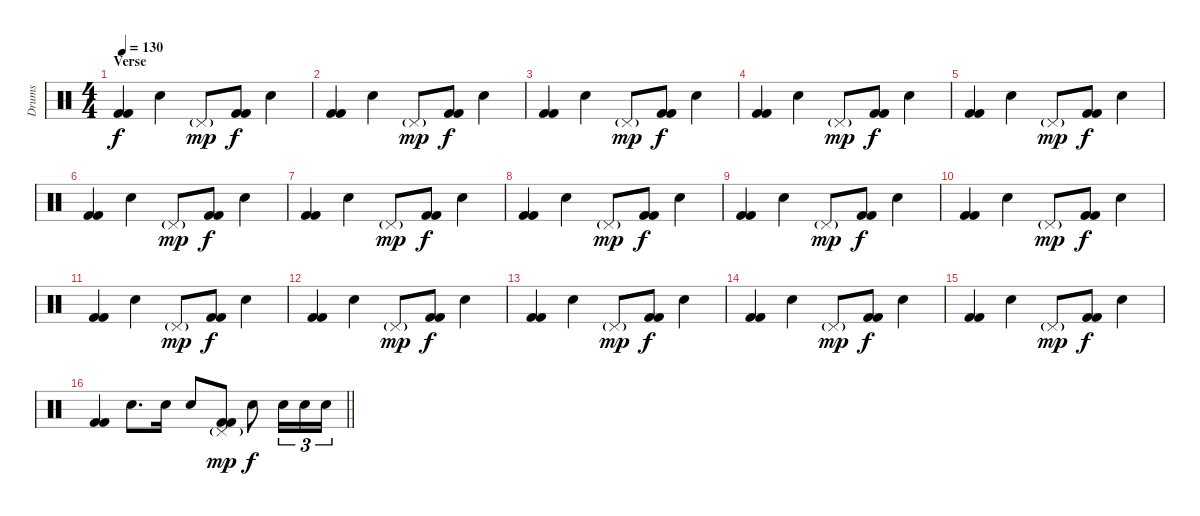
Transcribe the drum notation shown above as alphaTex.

\track ("Drums" "Drums") {instrument percussion}
\staff {score}
\articulation defaults
\ts (4 4)
\section ("" "Verse")
\tempo 130
\clef neutral
\ks c
("Kick (hit) 2" "Kick (hit) 2").4{dy f} "Electric Snare (hit)".4 "Pedal Hi-Hat (hit)"{g}.8{dy mp} ("Kick (hit) 2" "Kick (hit) 2").8{dy f} "Electric Snare (hit)".4 |
("Kick (hit) 2" "Kick (hit) 2").4 "Electric Snare (hit)".4 "Pedal Hi-Hat (hit)"{g}.8{dy mp} ("Kick (hit) 2" "Kick (hit) 2").8{dy f} "Electric Snare (hit)".4 |
("Kick (hit) 2" "Kick (hit) 2").4 "Electric Snare (hit)".4 "Pedal Hi-Hat (hit)"{g}.8{dy mp} ("Kick (hit) 2" "Kick (hit) 2").8{dy f} "Electric Snare (hit)".4 |
("Kick (hit) 2" "Kick (hit) 2").4 "Electric Snare (hit)".4 "Pedal Hi-Hat (hit)"{g}.8{dy mp} ("Kick (hit) 2" "Kick (hit) 2").8{dy f} "Electric Snare (hit)".4 |
("Kick (hit) 2" "Kick (hit) 2").4 "Electric Snare (hit)".4 "Pedal Hi-Hat (hit)"{g}.8{dy mp} ("Kick (hit) 2" "Kick (hit) 2").8{dy f} "Electric Snare (hit)".4 |
("Kick (hit) 2" "Kick (hit) 2").4 "Electric Snare (hit)".4 "Pedal Hi-Hat (hit)"{g}.8{dy mp} ("Kick (hit) 2" "Kick (hit) 2").8{dy f} "Electric Snare (hit)".4 |
("Kick (hit) 2" "Kick (hit) 2").4 "Electric Snare (hit)".4 "Pedal Hi-Hat (hit)"{g}.8{dy mp} ("Kick (hit) 2" "Kick (hit) 2").8{dy f} "Electric Snare (hit)".4 |
("Kick (hit) 2" "Kick (hit) 2").4 "Electric Snare (hit)".4 "Pedal Hi-Hat (hit)"{g}.8{dy mp} ("Kick (hit) 2" "Kick (hit) 2").8{dy f} "Electric Snare (hit)".4 |
("Kick (hit) 2" "Kick (hit) 2").4 "Electric Snare (hit)".4 "Pedal Hi-Hat (hit)"{g}.8{dy mp} ("Kick (hit) 2" "Kick (hit) 2").8{dy f} "Electric Snare (hit)".4 |
("Kick (hit) 2" "Kick (hit) 2").4 "Electric Snare (hit)".4 "Pedal Hi-Hat (hit)"{g}.8{dy mp} ("Kick (hit) 2" "Kick (hit) 2").8{dy f} "Electric Snare (hit)".4 |
("Kick (hit) 2" "Kick (hit) 2").4 "Electric Snare (hit)".4 "Pedal Hi-Hat (hit)"{g}.8{dy mp} ("Kick (hit) 2" "Kick (hit) 2").8{dy f} "Electric Snare (hit)".4 |
("Kick (hit) 2" "Kick (hit) 2").4 "Electric Snare (hit)".4 "Pedal Hi-Hat (hit)"{g}.8{dy mp} ("Kick (hit) 2" "Kick (hit) 2").8{dy f} "Electric Snare (hit)".4 |
("Kick (hit) 2" "Kick (hit) 2").4 "Electric Snare (hit)".4 "Pedal Hi-Hat (hit)"{g}.8{dy mp} ("Kick (hit) 2" "Kick (hit) 2").8{dy f} "Electric Snare (hit)".4 |
("Kick (hit) 2" "Kick (hit) 2").4 "Electric Snare (hit)".4 "Pedal Hi-Hat (hit)"{g}.8{dy mp} ("Kick (hit) 2" "Kick (hit) 2").8{dy f} "Electric Snare (hit)".4 |
("Kick (hit) 2" "Kick (hit) 2").4 "Electric Snare (hit)".4 "Pedal Hi-Hat (hit)"{g}.8{dy mp} ("Kick (hit) 2" "Kick (hit) 2").8{dy f} "Electric Snare (hit)".4 |
\barLineRight lightlight
("Kick (hit) 2" "Kick (hit) 2").4 "Electric Snare (hit)".8{d} "Electric Snare (hit)".16 "Electric Snare (hit)".8 ("Pedal Hi-Hat (hit)"{g} "Kick (hit) 2" "Kick (hit) 2").8{dy mp} "Electric Snare (hit)".8{dy f} "Electric Snare (hit)".16{tu (3 2)} "Electric Snare (hit)".16{tu (3 2)} "Electric Snare (hit)".16{tu (3 2)}
